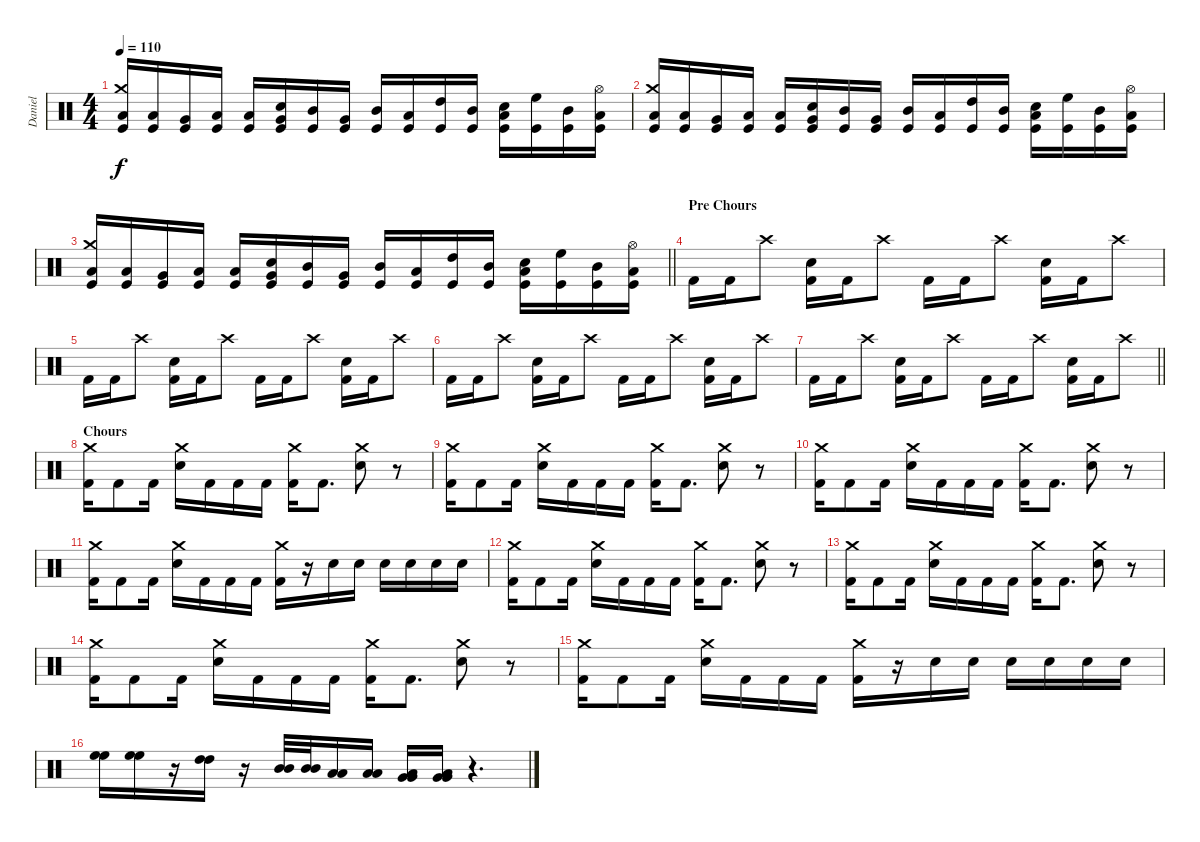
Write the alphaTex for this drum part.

\track ("Daniel" "Daniel") {instrument percussion}
\staff {score}
\articulation defaults
\ts (4 4)
\tempo 110
\clef neutral
\ks c
("Kick (hit)" "Crash medium (hit)" "Low Tom (hit)").16{dy f} ("Kick (hit)" "Low Tom (hit)").16 ("Kick (hit)" "Very Low Tom (hit)").16 ("Kick (hit)" "Low Floor Tom (hit)").16 ("Kick (hit)" "Low Tom (hit)").16 ("Kick (hit)" "Snare (hit) 2" "Very Low Tom (hit)").16 ("Kick (hit)" "Mid Tom (hit)").16 ("Kick (hit)" "Very Low Tom (hit)").16 ("Kick (hit)" "Mid Tom (hit)").16 ("Kick (hit)" "Low Tom (hit)").16 ("Kick (hit)" "High Tom (hit)").16 ("Kick (hit)" "Mid Tom (hit)").16 ("Kick (hit)" "Snare (hit) 2" "Low Tom (hit)").16 ("Kick (hit)" "High Floor Tom (hit)").16 ("Kick (hit)" "Mid Tom (hit)").16 ("Kick (hit)" "Hi-Hat (open)" "Low Tom (hit)").16 |
("Kick (hit)" "Crash medium (hit)" "Low Tom (hit)").16 ("Kick (hit)" "Low Tom (hit)").16 ("Kick (hit)" "Very Low Tom (hit)").16 ("Kick (hit)" "Low Floor Tom (hit)").16 ("Kick (hit)" "Low Tom (hit)").16 ("Kick (hit)" "Snare (hit) 2" "Very Low Tom (hit)").16 ("Kick (hit)" "Mid Tom (hit)").16 ("Kick (hit)" "Very Low Tom (hit)").16 ("Kick (hit)" "Mid Tom (hit)").16 ("Kick (hit)" "Low Tom (hit)").16 ("Kick (hit)" "High Tom (hit)").16 ("Kick (hit)" "Mid Tom (hit)").16 ("Kick (hit)" "Snare (hit) 2" "Low Tom (hit)").16 ("Kick (hit)" "High Floor Tom (hit)").16 ("Kick (hit)" "Mid Tom (hit)").16 ("Kick (hit)" "Hi-Hat (open)" "Low Tom (hit)").16 |
\barLineRight lightlight
("Kick (hit)" "Crash medium (hit)" "Low Tom (hit)").16 ("Kick (hit)" "Low Tom (hit)").16 ("Kick (hit)" "Very Low Tom (hit)").16 ("Kick (hit)" "Low Floor Tom (hit)").16 ("Kick (hit)" "Low Tom (hit)").16 ("Kick (hit)" "Snare (hit) 2" "Very Low Tom (hit)").16 ("Kick (hit)" "Mid Tom (hit)").16 ("Kick (hit)" "Very Low Tom (hit)").16 ("Kick (hit)" "Mid Tom (hit)").16 ("Kick (hit)" "Low Tom (hit)").16 ("Kick (hit)" "High Tom (hit)").16 ("Kick (hit)" "Mid Tom (hit)").16 ("Kick (hit)" "Snare (hit) 2" "Low Tom (hit)").16 ("Kick (hit)" "High Floor Tom (hit)").16 ("Kick (hit)" "Mid Tom (hit)").16 ("Kick (hit)" "Hi-Hat (open)" "Low Tom (hit)").16 |
\section ("" "Pre Chours")
"Kick (hit) 2".16 "Kick (hit) 2".16 "Crash high (hit)".8 ("Snare (hit) 2" "Kick (hit) 2").16 "Kick (hit) 2".16 "Crash high (hit)".8 "Kick (hit) 2".16 "Kick (hit) 2".16 "Crash high (hit)".8 ("Snare (hit) 2" "Kick (hit) 2").16 "Kick (hit) 2".16 "Crash high (hit)".8 |
"Kick (hit) 2".16 "Kick (hit) 2".16 "Crash high (hit)".8 ("Snare (hit) 2" "Kick (hit) 2").16 "Kick (hit) 2".16 "Crash high (hit)".8 "Kick (hit) 2".16 "Kick (hit) 2".16 "Crash high (hit)".8 ("Snare (hit) 2" "Kick (hit) 2").16 "Kick (hit) 2".16 "Crash high (hit)".8 |
"Kick (hit) 2".16 "Kick (hit) 2".16 "Crash high (hit)".8 ("Snare (hit) 2" "Kick (hit) 2").16 "Kick (hit) 2".16 "Crash high (hit)".8 "Kick (hit) 2".16 "Kick (hit) 2".16 "Crash high (hit)".8 ("Snare (hit) 2" "Kick (hit) 2").16 "Kick (hit) 2".16 "Crash high (hit)".8 |
\barLineRight lightlight "Kick (hit) 2".16 "Kick (hit) 2".16 "Crash high (hit)".8
("Snare (hit) 2" "Kick (hit) 2").16 "Kick (hit) 2".16 "Crash high (hit)".8 "Kick (hit) 2".16 "Kick (hit) 2".16 "Crash high (hit)".8 ("Snare (hit) 2" "Kick (hit) 2").16 "Kick (hit) 2".16 "Crash high (hit)".8 |
\section ("" "Chours")
("Crash medium (hit)" "Kick (hit) 2").16 "Kick (hit) 2".8 "Kick (hit) 2".16 ("Crash medium (hit)" "Snare (hit) 2").16 "Kick (hit) 2".16 "Kick (hit) 2".16 "Kick (hit) 2".16 ("Crash medium (hit)" "Kick (hit) 2").16 "Kick (hit) 2".8{d} ("Crash medium (hit)" "Snare (hit) 2").8 r.8 |
("Crash medium (hit)" "Kick (hit) 2").16 "Kick (hit) 2".8 "Kick (hit) 2".16 ("Crash medium (hit)" "Snare (hit) 2").16 "Kick (hit) 2".16 "Kick (hit) 2".16 "Kick (hit) 2".16 ("Crash medium (hit)" "Kick (hit) 2").16 "Kick (hit) 2".8{d} ("Crash medium (hit)" "Snare (hit) 2").8 r.8 |
("Crash medium (hit)" "Kick (hit) 2").16 "Kick (hit) 2".8 "Kick (hit) 2".16 ("Crash medium (hit)" "Snare (hit) 2").16 "Kick (hit) 2".16 "Kick (hit) 2".16 "Kick (hit) 2".16 ("Crash medium (hit)" "Kick (hit) 2").16 "Kick (hit) 2".8{d} ("Crash medium (hit)" "Snare (hit) 2").8 r.8 |
("Crash medium (hit)" "Kick (hit) 2").16 "Kick (hit) 2".8 "Kick (hit) 2".16 ("Crash medium (hit)" "Snare (hit) 2").16 "Kick (hit) 2".16 "Kick (hit) 2".16 "Kick (hit) 2".16 ("Crash medium (hit)" "Kick (hit) 2").16 r.16 "Electric Snare (hit)".16 "Electric Snare (hit)".16 "Electric Snare (hit)".16 "Electric Snare (hit)".16 "Electric Snare (hit)".16 "Electric Snare (hit)".16 |
("Crash medium (hit)" "Kick (hit) 2").16 "Kick (hit) 2".8 "Kick (hit) 2".16 ("Crash medium (hit)" "Snare (hit) 2").16 "Kick (hit) 2".16 "Kick (hit) 2".16 "Kick (hit) 2".16 ("Crash medium (hit)" "Kick (hit) 2").16 "Kick (hit) 2".8{d} ("Crash medium (hit)" "Snare (hit) 2").8 r.8 |
("Crash medium (hit)" "Kick (hit) 2").16 "Kick (hit) 2".8 "Kick (hit) 2".16 ("Crash medium (hit)" "Snare (hit) 2").16 "Kick (hit) 2".16 "Kick (hit) 2".16 "Kick (hit) 2".16 ("Crash medium (hit)" "Kick (hit) 2").16 "Kick (hit) 2".8{d} ("Crash medium (hit)" "Snare (hit) 2").8 r.8 |
("Crash medium (hit)" "Kick (hit) 2").16 "Kick (hit) 2".8 "Kick (hit) 2".16 ("Crash medium (hit)" "Snare (hit) 2").16 "Kick (hit) 2".16 "Kick (hit) 2".16 "Kick (hit) 2".16 ("Crash medium (hit)" "Kick (hit) 2").16 "Kick (hit) 2".8{d} ("Crash medium (hit)" "Snare (hit) 2").8 r.8 |
("Crash medium (hit)" "Kick (hit) 2").16 "Kick (hit) 2".8 "Kick (hit) 2".16 ("Crash medium (hit)" "Snare (hit) 2").16 "Kick (hit) 2".16 "Kick (hit) 2".16 "Kick (hit) 2".16 ("Crash medium (hit)" "Kick (hit) 2").16 r.16 "Electric Snare (hit)".16 "Electric Snare (hit)".16 "Electric Snare (hit)".16 "Electric Snare (hit)".16 "Electric Snare (hit)".16 "Electric Snare (hit)".16 |
("High Floor Tom (hit)" "High Floor Tom (hit)").16 ("High Floor Tom (hit)" "High Floor Tom (hit)").16 r.16 ("High Tom (hit)" "High Tom (hit)").16 r.16 ("Mid Tom (hit)" "Mid Tom (hit)").32 ("Mid Tom (hit)" "Mid Tom (hit)").32 ("Low Tom (hit)" "Low Tom (hit)").16 ("Low Tom (hit)" "Low Tom (hit)").16 ("Very Low Tom (hit)" "Very Low Tom (hit)" "Low Floor Tom (hit)").16 ("Very Low Tom (hit)" "Very Low Tom (hit)" "Low Floor Tom (hit)").16 r.4{d}
